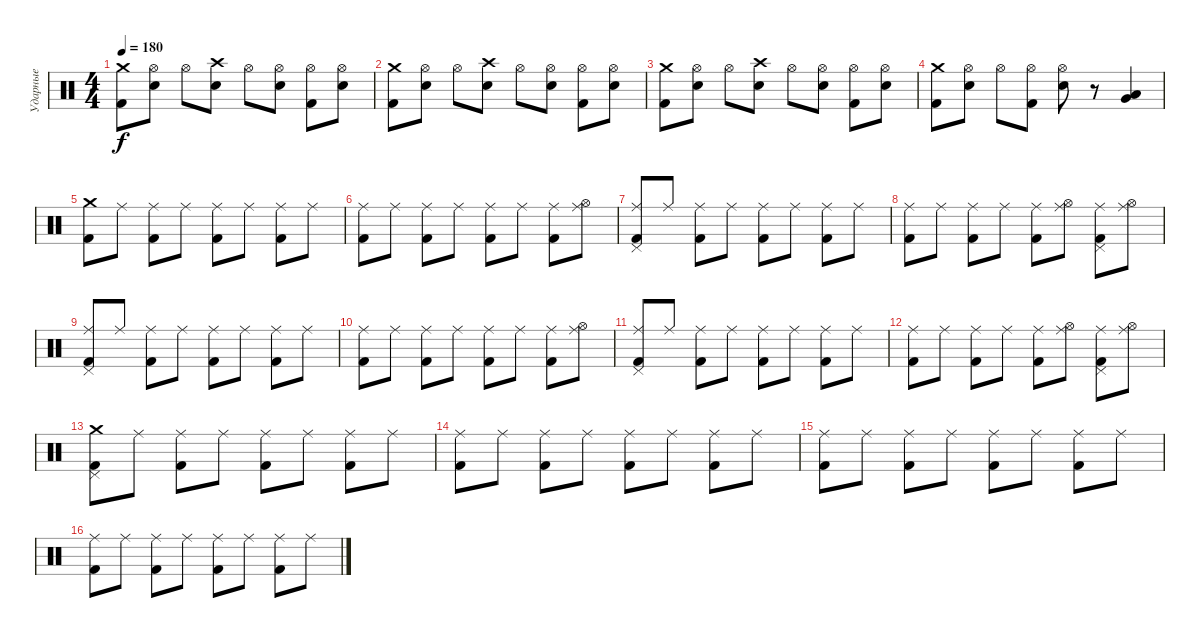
\track ("Ударные" "Ударные") {instrument percussion}
\staff {score}
\articulation defaults
\ts (4 4)
\tempo 180
\clef neutral
\ks c
("Crash medium (hit)" "Kick (hit) 2").8{dy f} ("Hi-Hat (open)" "Snare (hit) 2").8 "Hi-Hat (open)".8 ("Crash high (hit)" "Snare (hit) 2").8 "Hi-Hat (open)".8 ("Hi-Hat (open)" "Snare (hit) 2").8 ("Hi-Hat (open)" "Kick (hit) 2").8 ("Hi-Hat (open)" "Snare (hit) 2").8 |
("Crash medium (hit)" "Kick (hit) 2").8 ("Hi-Hat (open)" "Snare (hit) 2").8 "Hi-Hat (open)".8 ("Crash high (hit)" "Snare (hit) 2").8 "Hi-Hat (open)".8 ("Hi-Hat (open)" "Snare (hit) 2").8 ("Hi-Hat (open)" "Kick (hit) 2").8 ("Hi-Hat (open)" "Snare (hit) 2").8 |
("Crash medium (hit)" "Kick (hit) 2").8 ("Hi-Hat (open)" "Snare (hit) 2").8 "Hi-Hat (open)".8 ("Crash high (hit)" "Snare (hit) 2").8 "Hi-Hat (open)".8 ("Hi-Hat (open)" "Snare (hit) 2").8 ("Hi-Hat (open)" "Kick (hit) 2").8 ("Hi-Hat (open)" "Snare (hit) 2").8 |
("Crash medium (hit)" "Kick (hit) 2").8 ("Hi-Hat (open)" "Snare (hit) 2").8 "Hi-Hat (open)".8 ("Hi-Hat (open)" "Kick (hit) 2").8 ("Hi-Hat (open)" "Snare (hit) 2").8 r.8 ("Very Low Tom (hit)" "Low Floor Tom (hit)").4 |
("Crash medium (hit)" "Kick (hit) 2").8 "Ride (middle)".8 ("Ride (middle)" "Kick (hit) 2").8 "Ride (middle)".8 ("Ride (middle)" "Kick (hit) 2").8 "Ride (middle)".8 ("Ride (middle)" "Kick (hit) 2").8 "Ride (middle)".8 |
("Ride (middle)" "Kick (hit) 2").8 "Ride (middle)".8 ("Ride (middle)" "Kick (hit) 2").8 "Ride (middle)".8 ("Ride (middle)" "Kick (hit) 2").8 "Ride (middle)".8 ("Ride (middle)" "Kick (hit) 2").8 ("Ride (middle)" "Hi-Hat (open)").8 |
("Ride (middle)" "Pedal Hi-Hat (hit)" "Kick (hit) 2").8 "Ride (middle)".8 ("Ride (middle)" "Kick (hit) 2").8 "Ride (middle)".8 ("Ride (middle)" "Kick (hit) 2").8 "Ride (middle)".8 ("Ride (middle)" "Kick (hit) 2").8 "Ride (middle)".8 |
("Ride (middle)" "Kick (hit) 2").8 "Ride (middle)".8 ("Ride (middle)" "Kick (hit) 2").8 "Ride (middle)".8 ("Ride (middle)" "Kick (hit) 2").8 ("Ride (middle)" "Hi-Hat (open)").8 ("Ride (middle)" "Pedal Hi-Hat (hit)" "Kick (hit) 2").8 ("Ride (middle)" "Hi-Hat (open)").8 |
("Ride (middle)" "Pedal Hi-Hat (hit)" "Kick (hit) 2").8 "Ride (middle)".8 ("Ride (middle)" "Kick (hit) 2").8 "Ride (middle)".8 ("Ride (middle)" "Kick (hit) 2").8 "Ride (middle)".8 ("Ride (middle)" "Kick (hit) 2").8 "Ride (middle)".8 |
("Ride (middle)" "Kick (hit) 2").8 "Ride (middle)".8 ("Ride (middle)" "Kick (hit) 2").8 "Ride (middle)".8 ("Ride (middle)" "Kick (hit) 2").8 "Ride (middle)".8 ("Ride (middle)" "Kick (hit) 2").8 ("Ride (middle)" "Hi-Hat (open)").8 |
("Ride (middle)" "Pedal Hi-Hat (hit)" "Kick (hit) 2").8 "Ride (middle)".8 ("Ride (middle)" "Kick (hit) 2").8 "Ride (middle)".8 ("Ride (middle)" "Kick (hit) 2").8 "Ride (middle)".8 ("Ride (middle)" "Kick (hit) 2").8 "Ride (middle)".8 |
("Ride (middle)" "Kick (hit) 2").8 "Ride (middle)".8 ("Ride (middle)" "Kick (hit) 2").8 "Ride (middle)".8 ("Ride (middle)" "Kick (hit) 2").8 ("Ride (middle)" "Hi-Hat (open)").8 ("Ride (middle)" "Pedal Hi-Hat (hit)" "Kick (hit) 2").8 ("Ride (middle)" "Hi-Hat (open)").8 |
("Crash medium (hit)" "Pedal Hi-Hat (hit)" "Kick (hit) 2").8 "Ride (middle)".8 ("Ride (middle)" "Kick (hit) 2").8 "Ride (middle)".8 ("Ride (middle)" "Kick (hit) 2").8 "Ride (middle)".8 ("Ride (middle)" "Kick (hit) 2").8 "Ride (middle)".8 |
("Ride (middle)" "Kick (hit) 2").8 "Ride (middle)".8 ("Ride (middle)" "Kick (hit) 2").8 "Ride (middle)".8 ("Ride (middle)" "Kick (hit) 2").8 "Ride (middle)".8 ("Ride (middle)" "Kick (hit) 2").8 "Ride (middle)".8 |
("Ride (middle)" "Kick (hit) 2").8 "Ride (middle)".8 ("Ride (middle)" "Kick (hit) 2").8 "Ride (middle)".8 ("Ride (middle)" "Kick (hit) 2").8 "Ride (middle)".8 ("Ride (middle)" "Kick (hit) 2").8 "Ride (middle)".8 |
("Ride (middle)" "Kick (hit) 2").8 "Ride (middle)".8 ("Ride (middle)" "Kick (hit) 2").8 "Ride (middle)".8 ("Ride (middle)" "Kick (hit) 2").8 "Ride (middle)".8 ("Ride (middle)" "Kick (hit) 2").8 "Ride (middle)".8
